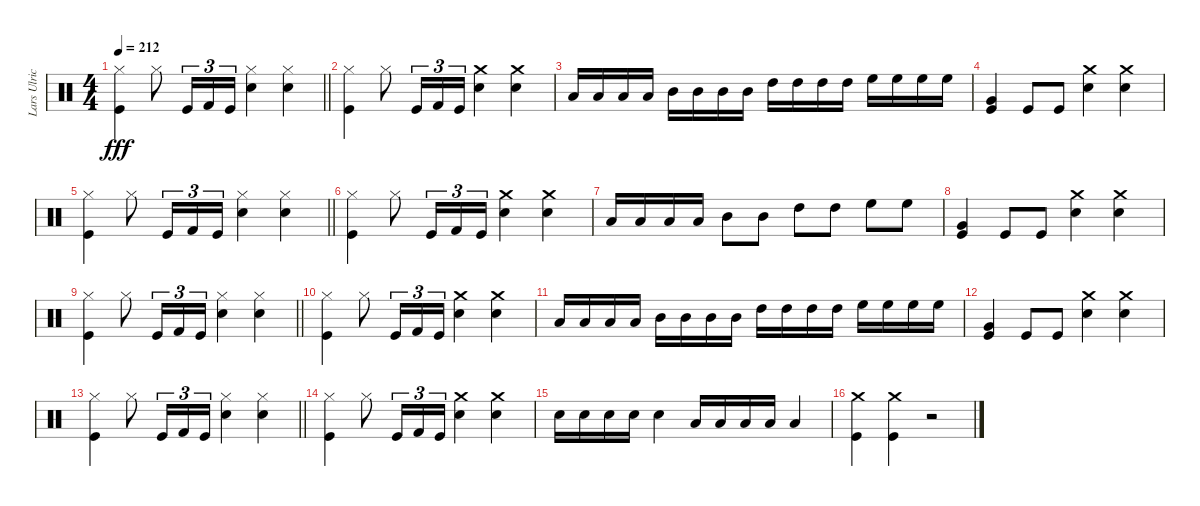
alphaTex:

\track ("Lars Ulrich" "Lars Ulric") {instrument percussion}
\staff {score}
\articulation defaults
\ts (4 4)
\tempo 212
\clef neutral
\barLineRight lightlight
\ks c
("Kick (hit)" "Hi-Hat (closed)").4{dy fff} "Hi-Hat (closed)".8 "Kick (hit)".16{tu (3 2)} "Kick (hit) 2".16{tu (3 2)} "Kick (hit)".16{tu (3 2)} ("Snare (hit) 2" "Hi-Hat (closed)").4 ("Snare (hit) 2" "Hi-Hat (closed)").4 |
("Kick (hit)" "Hi-Hat (closed)").4 "Hi-Hat (closed)".8 "Kick (hit)".16{tu (3 2)} "Kick (hit) 2".16{tu (3 2)} "Kick (hit)".16{tu (3 2)} ("Crash medium (hit)" "Snare (hit) 2").4 ("Crash medium (hit)" "Snare (hit) 2").4 |
"Low Tom (hit)".16 "Low Tom (hit)".16 "Low Tom (hit)".16 "Low Tom (hit)".16 "Mid Tom (hit)".16 "Mid Tom (hit)".16 "Mid Tom (hit)".16 "Mid Tom (hit)".16 "High Tom (hit)".16 "High Tom (hit)".16 "High Tom (hit)".16 "High Tom (hit)".16 "High Floor Tom (hit)".16 "High Floor Tom (hit)".16 "High Floor Tom (hit)".16 "High Floor Tom (hit)".16 |
("Kick (hit)" "Very Low Tom (hit)").4 "Kick (hit)".8 "Kick (hit)".8 ("Crash medium (hit)" "Snare (hit) 2").4 ("Snare (hit) 2" "Crash medium (hit)").4 |
\barLineRight lightlight
("Kick (hit)" "Hi-Hat (closed)").4 "Hi-Hat (closed)".8 "Kick (hit)".16{tu (3 2)} "Kick (hit) 2".16{tu (3 2)} "Kick (hit)".16{tu (3 2)} ("Snare (hit) 2" "Hi-Hat (closed)").4 ("Snare (hit) 2" "Hi-Hat (closed)").4 |
("Kick (hit)" "Hi-Hat (closed)").4 "Hi-Hat (closed)".8 "Kick (hit)".16{tu (3 2)} "Kick (hit) 2".16{tu (3 2)} "Kick (hit)".16{tu (3 2)} ("Crash medium (hit)" "Snare (hit) 2").4 ("Crash medium (hit)" "Snare (hit) 2").4 |
"Low Tom (hit)".16 "Low Tom (hit)".16 "Low Tom (hit)".16 "Low Tom (hit)".16 "Mid Tom (hit)".8 "Mid Tom (hit)".8 "High Tom (hit)".8 "High Tom (hit)".8 "High Floor Tom (hit)".8 "High Floor Tom (hit)".8 |
("Kick (hit)" "Very Low Tom (hit)").4 "Kick (hit)".8 "Kick (hit)".8 ("Crash medium (hit)" "Snare (hit) 2").4 ("Snare (hit) 2" "Crash medium (hit)").4 |
\barLineRight lightlight
("Hi-Hat (closed)" "Kick (hit)").4 "Hi-Hat (closed)".8 "Kick (hit)".16{tu (3 2)} "Kick (hit) 2".16{tu (3 2)} "Kick (hit)".16{tu (3 2)} ("Snare (hit) 2" "Hi-Hat (closed)").4 ("Snare (hit) 2" "Hi-Hat (closed)").4 |
("Hi-Hat (closed)" "Kick (hit)").4 "Hi-Hat (closed)".8 "Kick (hit)".16{tu (3 2)} "Kick (hit) 2".16{tu (3 2)} "Kick (hit)".16{tu (3 2)} ("Crash medium (hit)" "Snare (hit) 2").4 ("Crash medium (hit)" "Snare (hit) 2").4 |
"Low Tom (hit)".16 "Low Tom (hit)".16 "Low Tom (hit)".16 "Low Tom (hit)".16 "Mid Tom (hit)".16 "Mid Tom (hit)".16 "Mid Tom (hit)".16 "Mid Tom (hit)".16 "High Tom (hit)".16 "High Tom (hit)".16 "High Tom (hit)".16 "High Tom (hit)".16 "High Floor Tom (hit)".16 "High Floor Tom (hit)".16 "High Floor Tom (hit)".16 "High Floor Tom (hit)".16 |
("Kick (hit)" "Very Low Tom (hit)").4 "Kick (hit)".8 "Kick (hit)".8 ("Crash medium (hit)" "Snare (hit) 2").4 ("Crash medium (hit)" "Snare (hit) 2").4 |
\barLineRight lightlight
("Kick (hit)" "Hi-Hat (closed)").4 "Hi-Hat (closed)".8 "Kick (hit)".16{tu (3 2)} "Kick (hit) 2".16{tu (3 2)} "Kick (hit)".16{tu (3 2)} ("Hi-Hat (closed)" "Snare (hit) 2").4 ("Snare (hit) 2" "Hi-Hat (closed)").4 |
("Kick (hit)" "Hi-Hat (closed)").4 "Hi-Hat (closed)".8 "Kick (hit)".16{tu (3 2)} "Kick (hit) 2".16{tu (3 2)} "Kick (hit)".16{tu (3 2)} ("Crash medium (hit)" "Snare (hit) 2").4 ("Crash medium (hit)" "Snare (hit) 2").4 |
"Snare (hit) 2".16 "Snare (hit) 2".16 "Snare (hit) 2".16 "Snare (hit) 2".16 "Snare (hit) 2".4 "Low Tom (hit)".16 "Low Tom (hit)".16 "Low Tom (hit)".16 "Low Tom (hit)".16 "Low Tom (hit)".4 |
("Kick (hit)" "Crash medium (hit)").4 ("Kick (hit)" "Crash medium (hit)").4 r.2
